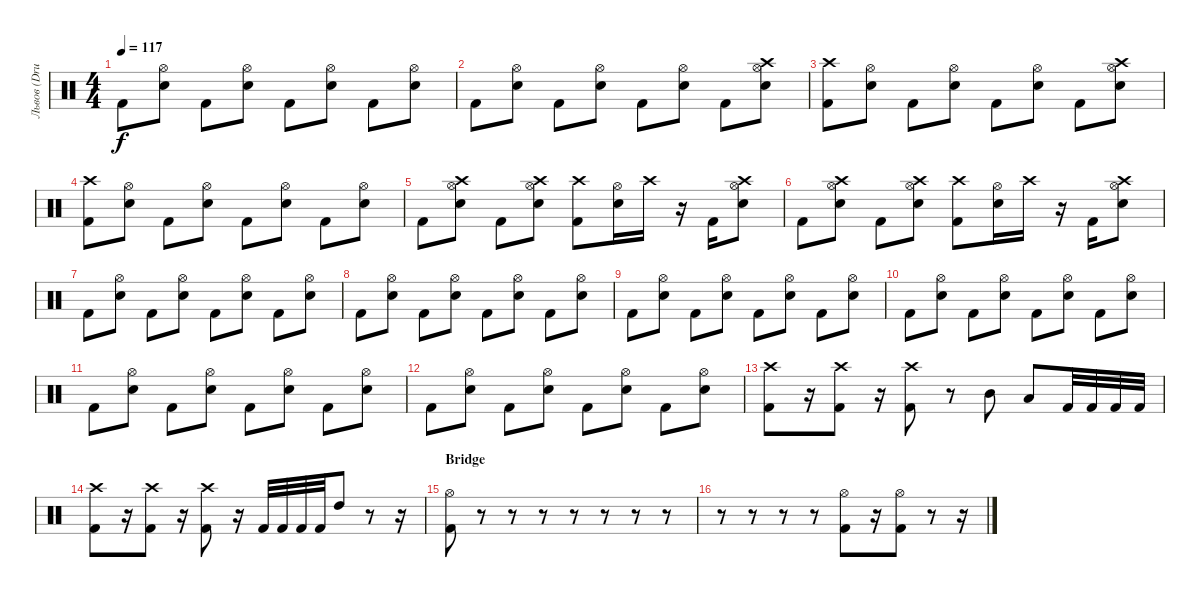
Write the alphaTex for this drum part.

\track ("Львов (Drums)" "Львов (Dru") {instrument percussion}
\staff {score}
\articulation defaults
\ts (4 4)
\tempo 117
\clef neutral
\ks c "Kick (hit) 2".8{dy f}
("Electric Snare (hit)" "Hi-Hat (open)").8 "Kick (hit) 2".8 ("Electric Snare (hit)" "Hi-Hat (open)").8 "Kick (hit) 2".8 ("Electric Snare (hit)" "Hi-Hat (open)").8 "Kick (hit) 2".8 ("Electric Snare (hit)" "Hi-Hat (open)").8 |
"Kick (hit) 2".8 ("Electric Snare (hit)" "Hi-Hat (open)").8 "Kick (hit) 2".8 ("Electric Snare (hit)" "Hi-Hat (open)").8 "Kick (hit) 2".8 ("Electric Snare (hit)" "Hi-Hat (open)").8 "Kick (hit) 2".8 ("Electric Snare (hit)" "Hi-Hat (open)" "Crash high (hit)").8 |
("Kick (hit) 2" "Crash high (hit)").8 ("Electric Snare (hit)" "Hi-Hat (open)").8 "Kick (hit) 2".8 ("Electric Snare (hit)" "Hi-Hat (open)").8 "Kick (hit) 2".8 ("Electric Snare (hit)" "Hi-Hat (open)").8 "Kick (hit) 2".8 ("Electric Snare (hit)" "Hi-Hat (open)" "Crash high (hit)").8 |
("Kick (hit) 2" "Crash high (hit)").8 ("Electric Snare (hit)" "Hi-Hat (open)").8 "Kick (hit) 2".8 ("Electric Snare (hit)" "Hi-Hat (open)").8 "Kick (hit) 2".8 ("Electric Snare (hit)" "Hi-Hat (open)").8 "Kick (hit) 2".8 ("Electric Snare (hit)" "Hi-Hat (open)").8 |
"Kick (hit) 2".8 ("Electric Snare (hit)" "Hi-Hat (open)" "Crash high (hit)").8 "Kick (hit) 2".8 ("Electric Snare (hit)" "Hi-Hat (open)" "Crash high (hit)").8 ("Kick (hit) 2" "Crash high (hit)").8 ("Electric Snare (hit)" "Hi-Hat (open)").16 "Crash high (hit)".16 r.16 "Kick (hit) 2".16 ("Electric Snare (hit)" "Hi-Hat (open)" "Crash high (hit)").8 |
"Kick (hit) 2".8 ("Electric Snare (hit)" "Hi-Hat (open)" "Crash high (hit)").8 "Kick (hit) 2".8 ("Electric Snare (hit)" "Hi-Hat (open)" "Crash high (hit)").8 ("Kick (hit) 2" "Crash high (hit)").8 ("Electric Snare (hit)" "Hi-Hat (open)").16 "Crash high (hit)".16 r.16 "Kick (hit) 2".16 ("Electric Snare (hit)" "Hi-Hat (open)" "Crash high (hit)").8 |
"Kick (hit) 2".8 ("Electric Snare (hit)" "Hi-Hat (open)").8 "Kick (hit) 2".8 ("Electric Snare (hit)" "Hi-Hat (open)").8 "Kick (hit) 2".8 ("Electric Snare (hit)" "Hi-Hat (open)").8 "Kick (hit) 2".8 ("Electric Snare (hit)" "Hi-Hat (open)").8 |
"Kick (hit) 2".8 ("Electric Snare (hit)" "Hi-Hat (open)").8 "Kick (hit) 2".8 ("Electric Snare (hit)" "Hi-Hat (open)").8 "Kick (hit) 2".8 ("Electric Snare (hit)" "Hi-Hat (open)").8 "Kick (hit) 2".8 ("Electric Snare (hit)" "Hi-Hat (open)").8 |
"Kick (hit) 2".8 ("Electric Snare (hit)" "Hi-Hat (open)").8 "Kick (hit) 2".8 ("Electric Snare (hit)" "Hi-Hat (open)").8 "Kick (hit) 2".8 ("Electric Snare (hit)" "Hi-Hat (open)").8 "Kick (hit) 2".8 ("Electric Snare (hit)" "Hi-Hat (open)").8 |
"Kick (hit) 2".8 ("Electric Snare (hit)" "Hi-Hat (open)").8 "Kick (hit) 2".8 ("Electric Snare (hit)" "Hi-Hat (open)").8 "Kick (hit) 2".8 ("Electric Snare (hit)" "Hi-Hat (open)").8 "Kick (hit) 2".8 ("Electric Snare (hit)" "Hi-Hat (open)").8 |
"Kick (hit) 2".8 ("Electric Snare (hit)" "Hi-Hat (open)").8 "Kick (hit) 2".8 ("Electric Snare (hit)" "Hi-Hat (open)").8 "Kick (hit) 2".8 ("Electric Snare (hit)" "Hi-Hat (open)").8 "Kick (hit) 2".8 ("Electric Snare (hit)" "Hi-Hat (open)").8 |
"Kick (hit) 2".8 ("Electric Snare (hit)" "Hi-Hat (open)").8 "Kick (hit) 2".8 ("Electric Snare (hit)" "Hi-Hat (open)").8 "Kick (hit) 2".8 ("Electric Snare (hit)" "Hi-Hat (open)").8 "Kick (hit) 2".8 ("Electric Snare (hit)" "Hi-Hat (open)").8 |
("Kick (hit) 2" "Crash high (hit)").8 r.16 ("Kick (hit) 2" "Crash high (hit)").8 r.16 ("Kick (hit) 2" "Crash high (hit)").8 r.8 "Mid Tom (hit)".8 "Low Tom (hit)".8 "Kick (hit) 2".32 "Kick (hit) 2".32 "Kick (hit) 2".32 "Kick (hit) 2".32 |
("Kick (hit) 2" "Crash high (hit)").8 r.16 ("Kick (hit) 2" "Crash high (hit)").8 r.16 ("Kick (hit) 2" "Crash high (hit)").8 r.16 "Kick (hit) 2".32 "Kick (hit) 2".32 "Kick (hit) 2".32 "Kick (hit) 2".32 "High Tom (hit)".8 r.8 r.16 |
\section ("" "Bridge")
("Kick (hit) 2" "Hi-Hat (open)").8 r.8 r.8 r.8 r.8 r.8 r.8 r.8 |
r.8 r.8 r.8 r.8 ("Kick (hit) 2" "Hi-Hat (open)").8 r.16 ("Hi-Hat (open)" "Kick (hit) 2").8 r.8 r.16
